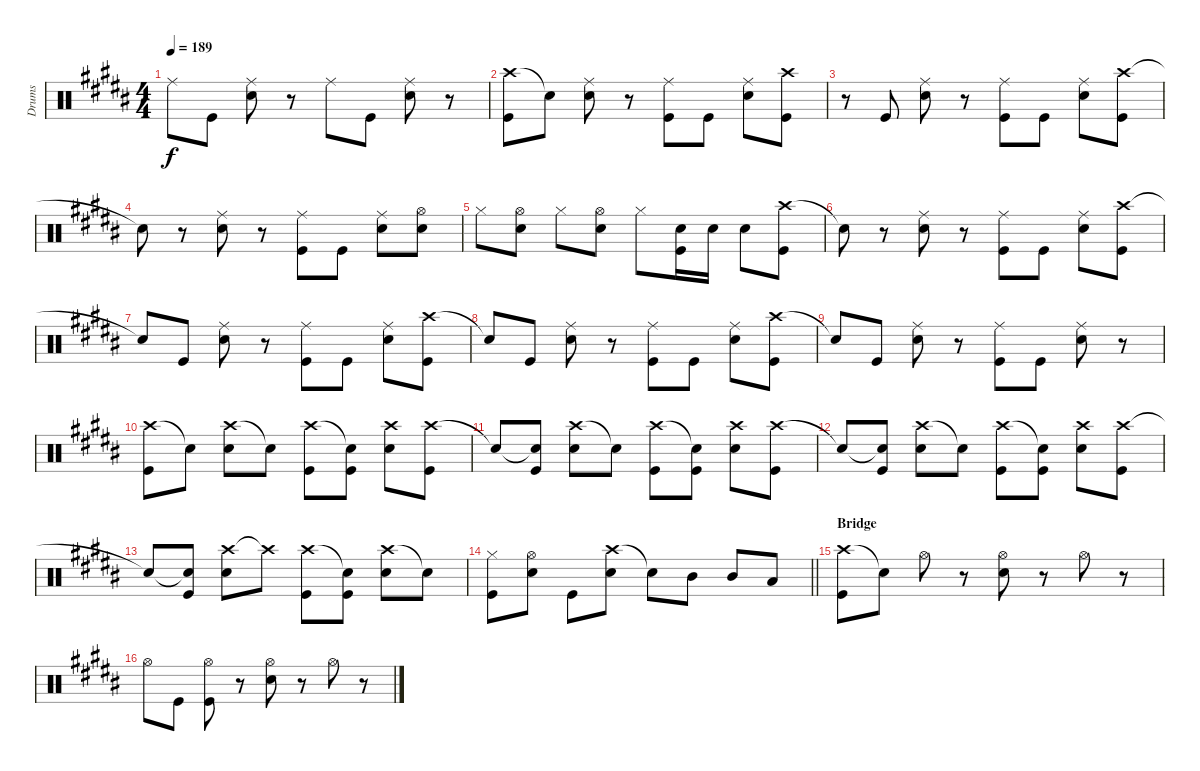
\track ("Drums" "Drums") {instrument percussion}
\staff {score}
\articulation defaults
\ts (4 4)
\tempo 189
\clef neutral
\ks b "Ride (middle)".8{dy f} "Kick (hit)".8
("Ride (middle)" "Snare (hit) 2").8 r.8 "Ride (middle)".8 "Kick (hit)".8 ("Ride (middle)" "Snare (hit) 2").8 r.8 |
("Crash high (hit)" "Kick (hit)").8 "Snare (hit)"{t}.8 ("Ride (middle)" "Snare (hit) 2").8 r.8 ("Ride (middle)" "Kick (hit)").8 "Kick (hit)".8 ("Ride (middle)" "Snare (hit) 2").8 ("Crash high (hit)" "Kick (hit)").8 |
r.8 "Kick (hit)".8 ("Ride (middle)" "Snare (hit) 2").8 r.8 ("Ride (middle)" "Kick (hit)").8 "Kick (hit)".8 ("Ride (middle)" "Snare (hit) 2").8 ("Crash high (hit)" "Kick (hit)").8 |
"Snare (hit)"{t}.8 r.8 ("Ride (middle)" "Snare (hit) 2").8 r.8 ("Ride (middle)" "Kick (hit)").8 "Kick (hit)".8 ("Ride (middle)" "Snare (hit) 2").8 ("Hi-Hat (open)" "Snare (hit) 2").8 |
"Hi-Hat (closed)".8 ("Hi-Hat (open)" "Snare (hit) 2").8 "Hi-Hat (closed)".8 ("Hi-Hat (open)" "Snare (hit) 2").8 "Hi-Hat (closed)".8 ("Snare (hit) 2" "Kick (hit)").16 "Snare (hit) 2".16 "Snare (hit) 2".8 ("Crash high (hit)" "Kick (hit)").8 |
"Snare (hit)"{t}.8 r.8 ("Ride (middle)" "Snare (hit) 2").8 r.8 ("Ride (middle)" "Kick (hit)").8 "Kick (hit)".8 ("Ride (middle)" "Snare (hit) 2").8 ("Crash high (hit)" "Kick (hit)").8 |
"Snare (hit)"{t}.8 "Kick (hit)".8 ("Ride (middle)" "Snare (hit) 2").8 r.8 ("Ride (middle)" "Kick (hit)").8 "Kick (hit)".8 ("Ride (middle)" "Snare (hit) 2").8 ("Crash high (hit)" "Kick (hit)").8 |
"Snare (hit)"{t}.8 "Kick (hit)".8 ("Ride (middle)" "Snare (hit) 2").8 r.8 ("Ride (middle)" "Kick (hit)").8 "Kick (hit)".8 ("Ride (middle)" "Snare (hit) 2").8 ("Crash high (hit)" "Kick (hit)").8 |
"Snare (hit)"{t}.8 "Kick (hit)".8 ("Ride (middle)" "Snare (hit) 2").8 r.8 ("Ride (middle)" "Kick (hit)").8 "Kick (hit)".8 ("Ride (middle)" "Snare (hit) 2").8 r.8 |
("Crash high (hit)" "Kick (hit)").8 "Snare (hit)"{t}.8 ("Crash high (hit)" "Snare (hit) 2").8 "Snare (hit)"{t}.8 ("Crash high (hit)" "Kick (hit)").8 ("Snare (hit)"{t} "Kick (hit)").8 ("Crash high (hit)" "Snare (hit) 2").8 ("Crash high (hit)" "Kick (hit)").8 |
"Snare (hit)"{t}.8 ("Snare (hit)"{t} "Kick (hit)").8 ("Crash high (hit)" "Snare (hit) 2").8 "Snare (hit)"{t}.8 ("Crash high (hit)" "Kick (hit)").8 ("Snare (hit)"{t} "Kick (hit)").8 ("Crash high (hit)" "Snare (hit) 2").8 ("Crash high (hit)" "Kick (hit)").8 |
"Snare (hit)"{t}.8 ("Snare (hit)"{t} "Kick (hit)").8 ("Crash high (hit)" "Snare (hit) 2").8 "Snare (hit)"{t}.8 ("Crash high (hit)" "Kick (hit)").8 ("Snare (hit)"{t} "Kick (hit)").8 ("Crash high (hit)" "Snare (hit) 2").8 ("Crash high (hit)" "Kick (hit)").8 |
"Snare (hit)"{t}.8 ("Snare (hit)"{t} "Kick (hit)").8 ("Crash high (hit)" "Snare (hit) 2").8 "Crash high (hit)"{t}.8 ("Crash high (hit)" "Kick (hit)").8 ("Snare (hit)"{t} "Kick (hit)").8 ("Crash high (hit)" "Snare (hit) 2").8 "Snare (hit)"{t}.8 |
\barLineRight lightlight
("Hi-Hat (closed)" "Kick (hit)").8 ("Hi-Hat (open)" "Snare (hit) 2").8 "Kick (hit)".8 ("Crash high (hit)" "Snare (hit) 2").8 "Snare (hit)"{t}.8 "Mid Tom (hit)".8 "Mid Tom (hit)".8 "Low Tom (hit)".8 |
\section ("" "Bridge")
("Crash high (hit)" "Kick (hit)").8 "Snare (hit)"{t}.8 "Hi-Hat (open)".8 r.8 ("Hi-Hat (open)" "Snare (hit) 2").8 r.8 "Hi-Hat (open)".8 r.8 |
"Hi-Hat (open)".8 "Kick (hit)".8 ("Hi-Hat (open)" "Kick (hit)").8 r.8 ("Hi-Hat (open)" "Snare (hit) 2").8 r.8 "Hi-Hat (open)".8 r.8
